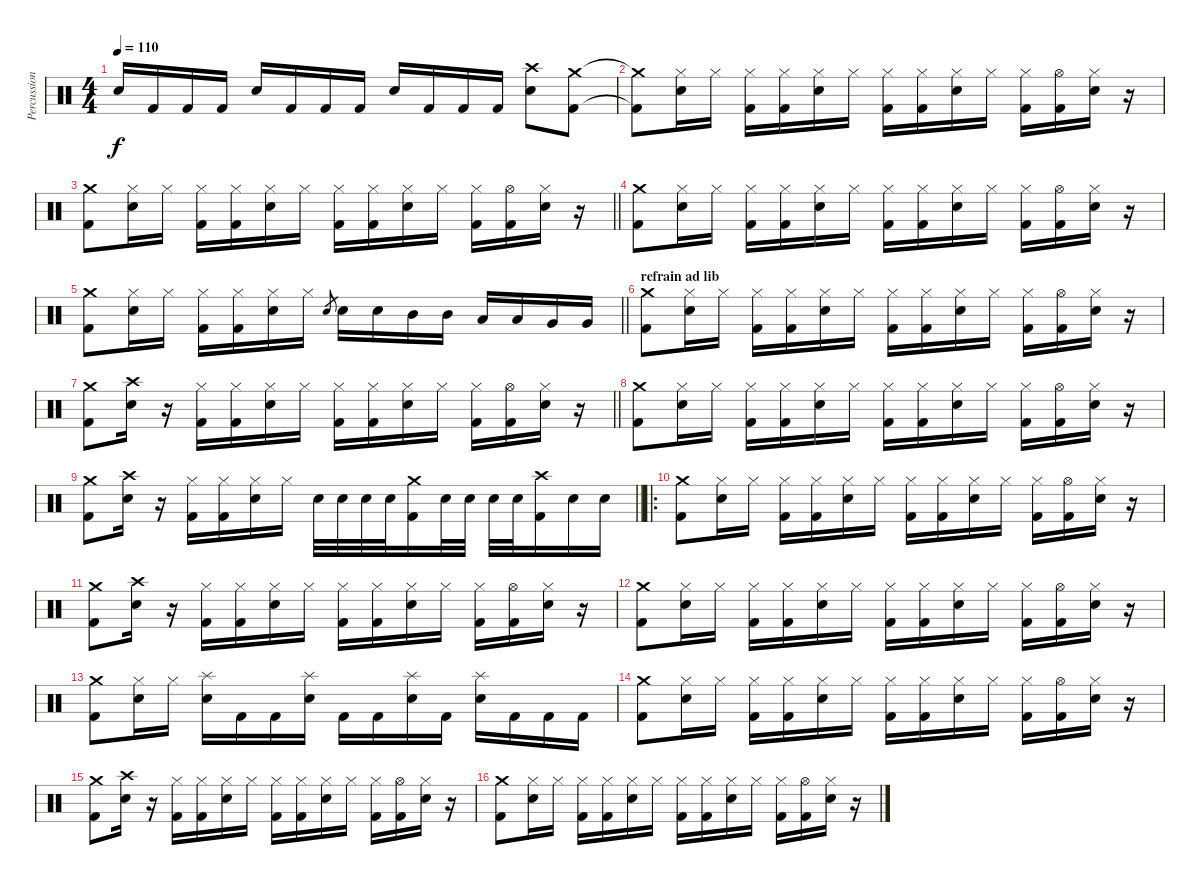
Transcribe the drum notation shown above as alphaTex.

\track ("Percussions" "Percussion") {instrument percussion}
\staff {score}
\articulation defaults
\ts (4 4)
\tempo 110
\clef neutral
\ks c "Electric Snare (hit)".16{dy f} "Kick (hit) 2".16 "Kick (hit) 2".16 "Kick (hit) 2".16 "Electric Snare (hit)".16 "Kick (hit) 2".16 "Kick (hit) 2".16 "Kick (hit) 2".16 "Electric Snare (hit)".16 "Kick (hit) 2".16 "Kick (hit) 2".16 "Kick (hit) 2".16
("Crash high (hit)" "Electric Snare (hit)").8 ("Crash medium (hit)" "Kick (hit) 2").8 |
("Crash medium (hit)"{t} "Kick (hit) 2"{t}).8 ("Hi-Hat (closed)" "Electric Snare (hit)").16 "Hi-Hat (closed)".16 ("Hi-Hat (closed)" "Kick (hit) 2").16 ("Hi-Hat (closed)" "Kick (hit) 2").16 ("Hi-Hat (closed)" "Electric Snare (hit)").16 "Hi-Hat (closed)".16 ("Hi-Hat (closed)" "Kick (hit) 2").16 ("Hi-Hat (closed)" "Kick (hit) 2").16 ("Hi-Hat (closed)" "Electric Snare (hit)").16 "Hi-Hat (closed)".16 ("Hi-Hat (closed)" "Kick (hit) 2").16 ("Hi-Hat (open)" "Kick (hit) 2").16 ("Hi-Hat (closed)" "Electric Snare (hit)").16 r.16 |
\barLineRight lightlight
("Crash medium (hit)" "Kick (hit) 2").8 ("Hi-Hat (closed)" "Electric Snare (hit)").16 "Hi-Hat (closed)".16 ("Hi-Hat (closed)" "Kick (hit) 2").16 ("Hi-Hat (closed)" "Kick (hit) 2").16 ("Hi-Hat (closed)" "Electric Snare (hit)").16 "Hi-Hat (closed)".16 ("Hi-Hat (closed)" "Kick (hit) 2").16 ("Hi-Hat (closed)" "Kick (hit) 2").16 ("Hi-Hat (closed)" "Electric Snare (hit)").16 "Hi-Hat (closed)".16 ("Hi-Hat (closed)" "Kick (hit) 2").16 ("Hi-Hat (open)" "Kick (hit) 2").16 ("Hi-Hat (closed)" "Electric Snare (hit)").16 r.16 |
("Crash medium (hit)" "Kick (hit) 2").8 ("Hi-Hat (closed)" "Electric Snare (hit)").16 "Hi-Hat (closed)".16 ("Hi-Hat (closed)" "Kick (hit) 2").16 ("Hi-Hat (closed)" "Kick (hit) 2").16 ("Hi-Hat (closed)" "Electric Snare (hit)").16 "Hi-Hat (closed)".16 ("Hi-Hat (closed)" "Kick (hit) 2").16 ("Hi-Hat (closed)" "Kick (hit) 2").16 ("Hi-Hat (closed)" "Electric Snare (hit)").16 "Hi-Hat (closed)".16 ("Hi-Hat (closed)" "Kick (hit) 2").16 ("Hi-Hat (open)" "Kick (hit) 2").16 ("Hi-Hat (closed)" "Electric Snare (hit)").16 r.16 |
\barLineRight lightlight
("Crash medium (hit)" "Kick (hit) 2").8 ("Hi-Hat (closed)" "Electric Snare (hit)").16 "Hi-Hat (closed)".16 ("Hi-Hat (closed)" "Kick (hit) 2").16 ("Hi-Hat (closed)" "Kick (hit) 2").16 ("Hi-Hat (closed)" "Electric Snare (hit)").16 "Hi-Hat (closed)".16 "Electric Snare (hit)".8{gr} "Electric Snare (hit)".16 "Electric Snare (hit)".16 "Mid Tom (hit)".16 "Mid Tom (hit)".16 "Low Tom (hit)".16 "Low Tom (hit)".16 "Very Low Tom (hit)".16 "Very Low Tom (hit)".16 |
\section ("" "refrain ad lib")
("Crash medium (hit)" "Kick (hit) 2").8 ("Hi-Hat (closed)" "Electric Snare (hit)").16 "Hi-Hat (closed)".16 ("Hi-Hat (closed)" "Kick (hit) 2").16 ("Hi-Hat (closed)" "Kick (hit) 2").16 ("Hi-Hat (closed)" "Electric Snare (hit)").16 "Hi-Hat (closed)".16 ("Hi-Hat (closed)" "Kick (hit) 2").16 ("Hi-Hat (closed)" "Kick (hit) 2").16 ("Hi-Hat (closed)" "Electric Snare (hit)").16 "Hi-Hat (closed)".16 ("Hi-Hat (closed)" "Kick (hit) 2").16 ("Hi-Hat (open)" "Kick (hit) 2").16 ("Hi-Hat (closed)" "Electric Snare (hit)").16 r.16 |
\barLineRight lightlight
("Crash medium (hit)" "Kick (hit) 2").8 ("Crash high (hit)" "Electric Snare (hit)").16 r.16 ("Hi-Hat (closed)" "Kick (hit) 2").16 ("Hi-Hat (closed)" "Kick (hit) 2").16 ("Hi-Hat (closed)" "Electric Snare (hit)").16 "Hi-Hat (closed)".16 ("Hi-Hat (closed)" "Kick (hit) 2").16 ("Hi-Hat (closed)" "Kick (hit) 2").16 ("Hi-Hat (closed)" "Electric Snare (hit)").16 "Hi-Hat (closed)".16 ("Hi-Hat (closed)" "Kick (hit) 2").16 ("Hi-Hat (open)" "Kick (hit) 2").16 ("Hi-Hat (closed)" "Electric Snare (hit)").16 r.16 |
("Crash medium (hit)" "Kick (hit) 2").8 ("Hi-Hat (closed)" "Electric Snare (hit)").16 "Hi-Hat (closed)".16 ("Hi-Hat (closed)" "Kick (hit) 2").16 ("Hi-Hat (closed)" "Kick (hit) 2").16 ("Hi-Hat (closed)" "Electric Snare (hit)").16 "Hi-Hat (closed)".16 ("Hi-Hat (closed)" "Kick (hit) 2").16 ("Hi-Hat (closed)" "Kick (hit) 2").16 ("Hi-Hat (closed)" "Electric Snare (hit)").16 "Hi-Hat (closed)".16 ("Hi-Hat (closed)" "Kick (hit) 2").16 ("Hi-Hat (open)" "Kick (hit) 2").16 ("Hi-Hat (closed)" "Electric Snare (hit)").16 r.16 |
\barLineRight lightlight
("Crash medium (hit)" "Kick (hit) 2").8 ("Crash high (hit)" "Electric Snare (hit)").16 r.16 ("Hi-Hat (closed)" "Kick (hit) 2").16 ("Hi-Hat (closed)" "Kick (hit) 2").16 ("Hi-Hat (closed)" "Electric Snare (hit)").16 "Hi-Hat (closed)".16 "Electric Snare (hit)".32 "Electric Snare (hit)".32 "Electric Snare (hit)".32 "Electric Snare (hit)".32 ("Crash medium (hit)" "Kick (hit) 2").16 "Electric Snare (hit)".32 "Electric Snare (hit)".32 "Electric Snare (hit)".32 "Electric Snare (hit)".32 ("Crash high (hit)" "Kick (hit) 2").16 "Electric Snare (hit)".16 "Electric Snare (hit)".16 |
\ro
("Crash medium (hit)" "Kick (hit) 2").8 ("Hi-Hat (closed)" "Electric Snare (hit)").16 "Hi-Hat (closed)".16 ("Hi-Hat (closed)" "Kick (hit) 2").16 ("Hi-Hat (closed)" "Kick (hit) 2").16 ("Hi-Hat (closed)" "Electric Snare (hit)").16 "Hi-Hat (closed)".16 ("Hi-Hat (closed)" "Kick (hit) 2").16 ("Hi-Hat (closed)" "Kick (hit) 2").16 ("Hi-Hat (closed)" "Electric Snare (hit)").16 "Hi-Hat (closed)".16 ("Hi-Hat (closed)" "Kick (hit) 2").16 ("Hi-Hat (open)" "Kick (hit) 2").16 ("Hi-Hat (closed)" "Electric Snare (hit)").16 r.16 |
("Crash medium (hit)" "Kick (hit) 2").8 ("Crash high (hit)" "Electric Snare (hit)").16 r.16 ("Hi-Hat (closed)" "Kick (hit) 2").16 ("Hi-Hat (closed)" "Kick (hit) 2").16 ("Hi-Hat (closed)" "Electric Snare (hit)").16 "Hi-Hat (closed)".16 ("Hi-Hat (closed)" "Kick (hit) 2").16 ("Hi-Hat (closed)" "Kick (hit) 2").16 ("Hi-Hat (closed)" "Electric Snare (hit)").16 "Hi-Hat (closed)".16 ("Hi-Hat (closed)" "Kick (hit) 2").16 ("Hi-Hat (open)" "Kick (hit) 2").16 ("Hi-Hat (closed)" "Electric Snare (hit)").16 r.16 |
("Crash medium (hit)" "Kick (hit) 2").8 ("Hi-Hat (closed)" "Electric Snare (hit)").16 "Hi-Hat (closed)".16 ("Hi-Hat (closed)" "Kick (hit) 2").16 ("Hi-Hat (closed)" "Kick (hit) 2").16 ("Hi-Hat (closed)" "Electric Snare (hit)").16 "Hi-Hat (closed)".16 ("Hi-Hat (closed)" "Kick (hit) 2").16 ("Hi-Hat (closed)" "Kick (hit) 2").16 ("Hi-Hat (closed)" "Electric Snare (hit)").16 "Hi-Hat (closed)".16 ("Hi-Hat (closed)" "Kick (hit) 2").16 ("Hi-Hat (open)" "Kick (hit) 2").16 ("Hi-Hat (closed)" "Electric Snare (hit)").16 r.16 |
("Crash medium (hit)" "Kick (hit) 2").8 ("Hi-Hat (closed)" "Electric Snare (hit)").16 "Hi-Hat (closed)".16 ("Splash (hit)" "Electric Snare (hit)").16 "Kick (hit) 2".16 "Kick (hit) 2".16 ("Splash (hit)" "Electric Snare (hit)").16 "Kick (hit) 2".16 "Kick (hit) 2".16 ("Splash (hit)" "Electric Snare (hit)").16 "Kick (hit) 2".16 ("Splash (hit)" "Electric Snare (hit)").16 "Kick (hit) 2".16 "Kick (hit) 2".16 "Kick (hit) 2".16 |
("Crash medium (hit)" "Kick (hit) 2").8 ("Hi-Hat (closed)" "Electric Snare (hit)").16 "Hi-Hat (closed)".16 ("Hi-Hat (closed)" "Kick (hit) 2").16 ("Hi-Hat (closed)" "Kick (hit) 2").16 ("Hi-Hat (closed)" "Electric Snare (hit)").16 "Hi-Hat (closed)".16 ("Hi-Hat (closed)" "Kick (hit) 2").16 ("Hi-Hat (closed)" "Kick (hit) 2").16 ("Hi-Hat (closed)" "Electric Snare (hit)").16 "Hi-Hat (closed)".16 ("Hi-Hat (closed)" "Kick (hit) 2").16 ("Hi-Hat (open)" "Kick (hit) 2").16 ("Hi-Hat (closed)" "Electric Snare (hit)").16 r.16 |
("Crash medium (hit)" "Kick (hit) 2").8 ("Crash high (hit)" "Electric Snare (hit)").16 r.16 ("Hi-Hat (closed)" "Kick (hit) 2").16 ("Hi-Hat (closed)" "Kick (hit) 2").16 ("Hi-Hat (closed)" "Electric Snare (hit)").16 "Hi-Hat (closed)".16 ("Hi-Hat (closed)" "Kick (hit) 2").16 ("Hi-Hat (closed)" "Kick (hit) 2").16 ("Hi-Hat (closed)" "Electric Snare (hit)").16 "Hi-Hat (closed)".16 ("Hi-Hat (closed)" "Kick (hit) 2").16 ("Hi-Hat (open)" "Kick (hit) 2").16 ("Hi-Hat (closed)" "Electric Snare (hit)").16 r.16 |
("Crash medium (hit)" "Kick (hit) 2").8 ("Hi-Hat (closed)" "Electric Snare (hit)").16 "Hi-Hat (closed)".16 ("Hi-Hat (closed)" "Kick (hit) 2").16 ("Hi-Hat (closed)" "Kick (hit) 2").16 ("Hi-Hat (closed)" "Electric Snare (hit)").16 "Hi-Hat (closed)".16 ("Hi-Hat (closed)" "Kick (hit) 2").16 ("Hi-Hat (closed)" "Kick (hit) 2").16 ("Hi-Hat (closed)" "Electric Snare (hit)").16 "Hi-Hat (closed)".16 ("Hi-Hat (closed)" "Kick (hit) 2").16 ("Hi-Hat (open)" "Kick (hit) 2").16 ("Hi-Hat (closed)" "Electric Snare (hit)").16 r.16
